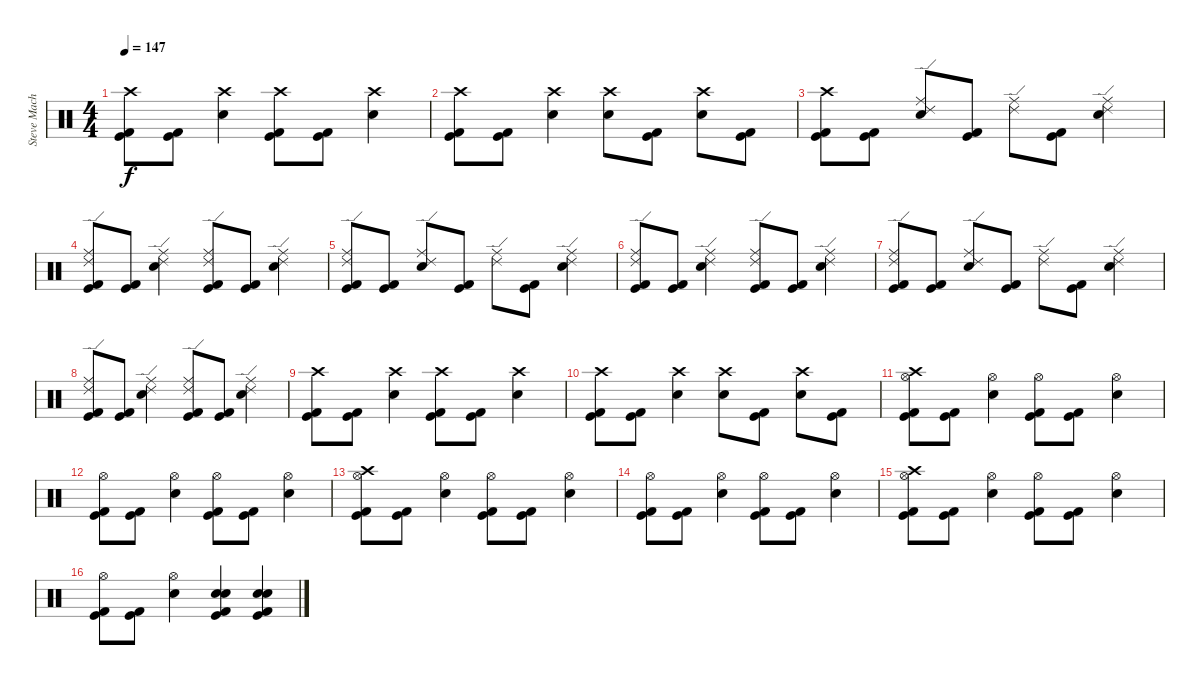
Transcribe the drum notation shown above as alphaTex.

\track ("Steve Machine West" "Steve Mach") {instrument percussion}
\staff {score}
\articulation defaults
\ts (4 4)
\tempo 147
\clef neutral
\ks c
("Crash high (hit)" "Kick (hit)" "Kick (hit) 2").8{dy f} ("Kick (hit)" "Kick (hit) 2").8 ("Crash high (hit)" "Electric Snare (hit)").4 ("Crash high (hit)" "Kick (hit)" "Kick (hit) 2").8 ("Kick (hit)" "Kick (hit) 2").8 ("Crash high (hit)" "Electric Snare (hit)").4 |
("Crash high (hit)" "Kick (hit)" "Kick (hit) 2").8 ("Kick (hit)" "Kick (hit) 2").8 ("Crash high (hit)" "Electric Snare (hit)").4 ("Crash high (hit)" "Electric Snare (hit)").8 ("Kick (hit)" "Kick (hit) 2").8 ("Crash high (hit)" "Electric Snare (hit)").8 ("Kick (hit)" "Kick (hit) 2").8 |
("Crash high (hit)" "Kick (hit)" "Kick (hit) 2").8 ("Kick (hit)" "Kick (hit) 2").8 ("Ride (middle)" "Ride (edge) 2" "Electric Snare (hit)").8 ("Kick (hit)" "Kick (hit) 2").8 ("Ride (middle)" "Ride (edge) 2").8 ("Kick (hit)" "Kick (hit) 2").8 ("Ride (middle)" "Ride (edge) 2" "Electric Snare (hit)").4 |
("Ride (middle)" "Ride (edge) 2" "Kick (hit)" "Kick (hit) 2").8 ("Kick (hit)" "Kick (hit) 2").8 ("Ride (middle)" "Ride (edge) 2" "Electric Snare (hit)").4 ("Ride (middle)" "Ride (edge) 2" "Kick (hit)" "Kick (hit) 2").8 ("Kick (hit)" "Kick (hit) 2").8 ("Ride (middle)" "Ride (edge) 2" "Electric Snare (hit)").4 |
("Ride (middle)" "Ride (edge) 2" "Kick (hit)" "Kick (hit) 2").8 ("Kick (hit)" "Kick (hit) 2").8 ("Ride (middle)" "Ride (edge) 2" "Electric Snare (hit)").8 ("Kick (hit)" "Kick (hit) 2").8 ("Ride (middle)" "Ride (edge) 2").8 ("Kick (hit)" "Kick (hit) 2").8 ("Ride (middle)" "Ride (edge) 2" "Electric Snare (hit)").4 |
("Ride (middle)" "Ride (edge) 2" "Kick (hit)" "Kick (hit) 2").8 ("Kick (hit)" "Kick (hit) 2").8 ("Ride (middle)" "Ride (edge) 2" "Electric Snare (hit)").4 ("Ride (middle)" "Ride (edge) 2" "Kick (hit)" "Kick (hit) 2").8 ("Kick (hit)" "Kick (hit) 2").8 ("Ride (middle)" "Ride (edge) 2" "Electric Snare (hit)").4 |
("Ride (middle)" "Ride (edge) 2" "Kick (hit)" "Kick (hit) 2").8 ("Kick (hit)" "Kick (hit) 2").8 ("Ride (middle)" "Ride (edge) 2" "Electric Snare (hit)").8 ("Kick (hit)" "Kick (hit) 2").8 ("Ride (middle)" "Ride (edge) 2").8 ("Kick (hit)" "Kick (hit) 2").8 ("Ride (middle)" "Ride (edge) 2" "Electric Snare (hit)").4 |
("Ride (middle)" "Ride (edge) 2" "Kick (hit)" "Kick (hit) 2").8 ("Kick (hit)" "Kick (hit) 2").8 ("Ride (middle)" "Ride (edge) 2" "Electric Snare (hit)").4 ("Ride (middle)" "Ride (edge) 2" "Kick (hit)" "Kick (hit) 2").8 ("Kick (hit)" "Kick (hit) 2").8 ("Ride (middle)" "Ride (edge) 2" "Electric Snare (hit)").4 |
("Crash high (hit)" "Kick (hit)" "Kick (hit) 2").8 ("Kick (hit)" "Kick (hit) 2").8 ("Crash high (hit)" "Electric Snare (hit)").4 ("Crash high (hit)" "Kick (hit)" "Kick (hit) 2").8 ("Kick (hit)" "Kick (hit) 2").8 ("Crash high (hit)" "Electric Snare (hit)").4 |
("Crash high (hit)" "Kick (hit)" "Kick (hit) 2").8 ("Kick (hit)" "Kick (hit) 2").8 ("Crash high (hit)" "Electric Snare (hit)").4 ("Crash high (hit)" "Electric Snare (hit)").8 ("Kick (hit)" "Kick (hit) 2").8 ("Crash high (hit)" "Electric Snare (hit)").8 ("Kick (hit)" "Kick (hit) 2").8 |
("Crash high (hit)" "Hi-Hat (open)" "Kick (hit)" "Kick (hit) 2").8 ("Kick (hit)" "Kick (hit) 2").8 ("Hi-Hat (open)" "Electric Snare (hit)").4 ("Hi-Hat (open)" "Kick (hit)" "Kick (hit) 2").8 ("Kick (hit)" "Kick (hit) 2").8 ("Hi-Hat (open)" "Electric Snare (hit)").4 |
("Hi-Hat (open)" "Kick (hit)" "Kick (hit) 2").8 ("Kick (hit)" "Kick (hit) 2").8 ("Hi-Hat (open)" "Electric Snare (hit)").4 ("Hi-Hat (open)" "Kick (hit)" "Kick (hit) 2").8 ("Kick (hit)" "Kick (hit) 2").8 ("Hi-Hat (open)" "Electric Snare (hit)").4 |
("Crash high (hit)" "Hi-Hat (open)" "Kick (hit)" "Kick (hit) 2").8 ("Kick (hit)" "Kick (hit) 2").8 ("Hi-Hat (open)" "Electric Snare (hit)").4 ("Hi-Hat (open)" "Kick (hit)" "Kick (hit) 2").8 ("Kick (hit)" "Kick (hit) 2").8 ("Hi-Hat (open)" "Electric Snare (hit)").4 |
("Hi-Hat (open)" "Kick (hit)" "Kick (hit) 2").8 ("Kick (hit)" "Kick (hit) 2").8 ("Hi-Hat (open)" "Electric Snare (hit)").4 ("Hi-Hat (open)" "Kick (hit)" "Kick (hit) 2").8 ("Kick (hit)" "Kick (hit) 2").8 ("Hi-Hat (open)" "Electric Snare (hit)").4 |
("Crash high (hit)" "Hi-Hat (open)" "Kick (hit)" "Kick (hit) 2").8 ("Kick (hit)" "Kick (hit) 2").8 ("Hi-Hat (open)" "Electric Snare (hit)").4 ("Hi-Hat (open)" "Kick (hit)" "Kick (hit) 2").8 ("Kick (hit)" "Kick (hit) 2").8 ("Hi-Hat (open)" "Electric Snare (hit)").4 |
("Hi-Hat (open)" "Kick (hit)" "Kick (hit) 2").8 ("Kick (hit)" "Kick (hit) 2").8 ("Hi-Hat (open)" "Electric Snare (hit)").4 ("Snare (hit) 2" "Electric Snare (hit)" "Kick (hit)" "Kick (hit) 2").4 ("Snare (hit) 2" "Electric Snare (hit)" "Kick (hit)" "Kick (hit) 2").4
